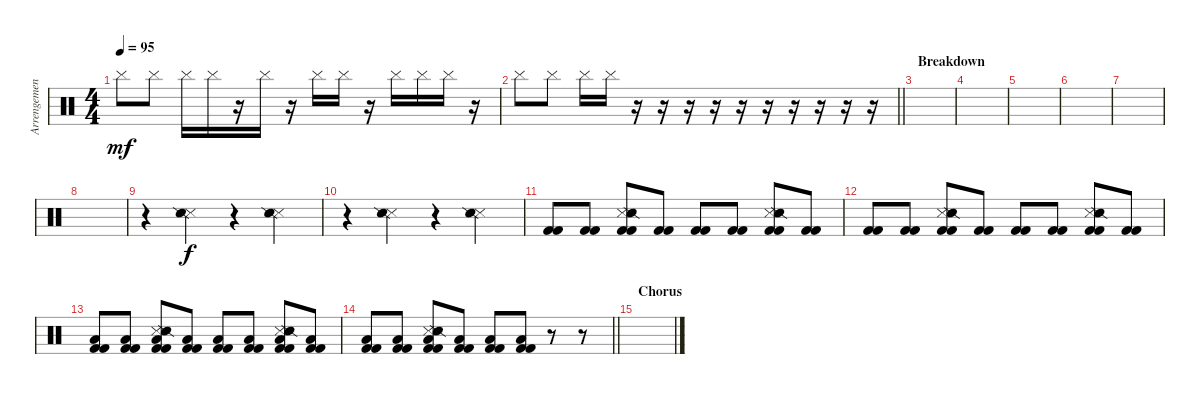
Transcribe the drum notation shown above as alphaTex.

\track ("Arrengements" "Arrengemen") {instrument percussion}
\staff {score}
\articulation defaults
\ts (4 4)
\tempo 95
\clef neutral
\ks c "Cymbal (hit)".8{dy mf} "Cymbal (hit)".8 "Cymbal (hit)".16 "Cymbal (hit)".16
r.16 "Cymbal (hit)".16 r.16 "Cymbal (hit)".16 "Cymbal (hit)".16 r.16 "Cymbal (hit)".16 "Cymbal (hit)".16 "Cymbal (hit)".16 r.16 |
\barLineRight lightlight "Cymbal (hit)".8 "Cymbal (hit)".8 "Cymbal (hit)".16 "Cymbal (hit)".16
r.16 r.16 r.16 r.16 r.16 r.16 r.16 r.16 r.16 r.16 |
\section ("" "Breakdown")
|
|
|
|
|
|
r.4 ("Snare (side stick) 3" "Snare (side stick) 2").4{dy f} r.4 ("Snare (side stick) 3" "Snare (side stick) 2").4 |
r.4 ("Snare (side stick) 3" "Snare (side stick) 2").4 r.4 ("Snare (side stick) 3" "Snare (side stick) 2").4 |
("Kick (hit) 2" "Kick (hit) 2").8 ("Kick (hit) 2" "Kick (hit) 2").8 ("Snare (side stick) 3" "Snare (side stick) 2" "Kick (hit) 2" "Kick (hit) 2").8 ("Kick (hit) 2" "Kick (hit) 2").8 ("Kick (hit) 2" "Kick (hit) 2").8 ("Kick (hit) 2" "Kick (hit) 2").8 ("Snare (side stick) 3" "Snare (side stick) 2" "Kick (hit) 2" "Kick (hit) 2").8 ("Kick (hit) 2" "Kick (hit) 2").8 |
("Kick (hit) 2" "Kick (hit) 2").8 ("Kick (hit) 2" "Kick (hit) 2").8 ("Snare (side stick) 3" "Snare (side stick) 2" "Kick (hit) 2" "Kick (hit) 2").8 ("Kick (hit) 2" "Kick (hit) 2").8 ("Kick (hit) 2" "Kick (hit) 2").8 ("Kick (hit) 2" "Kick (hit) 2").8 ("Snare (side stick) 3" "Snare (side stick) 2" "Kick (hit) 2" "Kick (hit) 2").8 ("Kick (hit) 2" "Kick (hit) 2").8 |
("Low Tom (hit)" "Kick (hit) 2" "Kick (hit) 2").8 ("Low Tom (hit)" "Kick (hit) 2" "Kick (hit) 2").8 ("Low Tom (hit)" "Snare (side stick) 3" "Snare (side stick) 2" "Kick (hit) 2" "Kick (hit) 2").8 ("Low Tom (hit)" "Kick (hit) 2" "Kick (hit) 2").8 ("Low Tom (hit)" "Kick (hit) 2" "Kick (hit) 2").8 ("Low Tom (hit)" "Kick (hit) 2" "Kick (hit) 2").8 ("Low Tom (hit)" "Snare (side stick) 3" "Snare (side stick) 2" "Kick (hit) 2" "Kick (hit) 2").8 ("Low Tom (hit)" "Kick (hit) 2" "Kick (hit) 2").8 |
\barLineRight lightlight
("Low Tom (hit)" "Kick (hit) 2" "Kick (hit) 2").8 ("Low Tom (hit)" "Kick (hit) 2" "Kick (hit) 2").8 ("Low Tom (hit)" "Snare (side stick) 3" "Snare (side stick) 2" "Kick (hit) 2" "Kick (hit) 2").8 ("Low Tom (hit)" "Kick (hit) 2" "Kick (hit) 2").8 ("Low Tom (hit)" "Kick (hit) 2" "Kick (hit) 2").8 ("Low Tom (hit)" "Kick (hit) 2" "Kick (hit) 2").8 r.8 r.8 |
\section ("" "Chorus")
